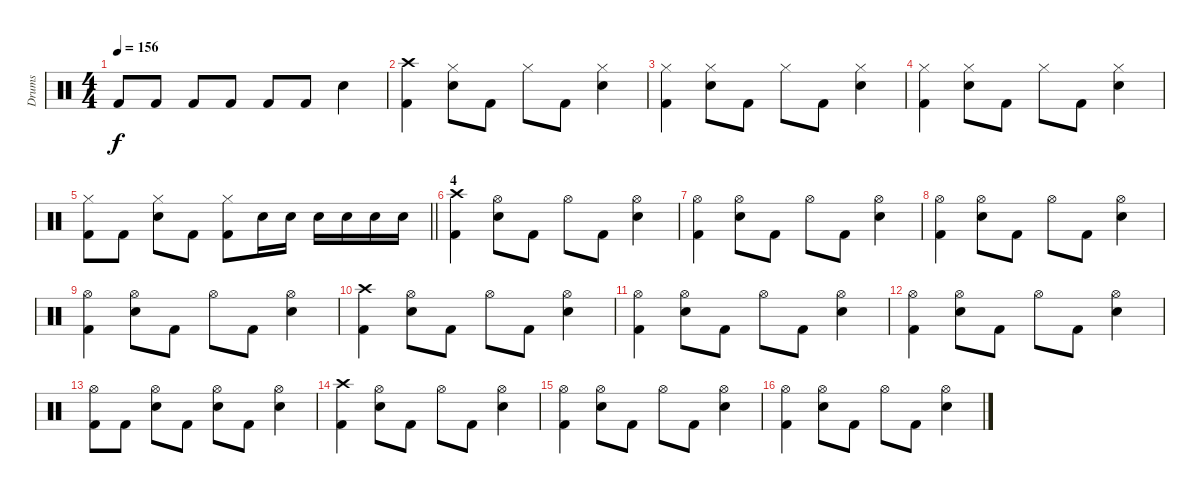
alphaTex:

\track ("Drums" "Drums") {instrument percussion}
\staff {score}
\articulation defaults
\ts (4 4)
\tempo 156
\clef neutral
\ks c "Kick (hit) 2".8{dy f} "Kick (hit) 2".8 "Kick (hit) 2".8 "Kick (hit) 2".8 "Kick (hit) 2".8 "Kick (hit) 2".8 "Snare (hit) 2".4
|
("Crash high (hit)" "Kick (hit) 2").4 ("Hi-Hat (closed)" "Snare (hit) 2").8 "Kick (hit) 2".8 "Hi-Hat (closed)".8 "Kick (hit) 2".8 ("Hi-Hat (closed)" "Snare (hit) 2").4 |
("Hi-Hat (closed)" "Kick (hit) 2").4 ("Hi-Hat (closed)" "Snare (hit) 2").8 "Kick (hit) 2".8 "Hi-Hat (closed)".8 "Kick (hit) 2".8 ("Hi-Hat (closed)" "Snare (hit) 2").4 |
("Hi-Hat (closed)" "Kick (hit) 2").4 ("Hi-Hat (closed)" "Snare (hit) 2").8 "Kick (hit) 2".8 "Hi-Hat (closed)".8 "Kick (hit) 2".8 ("Hi-Hat (closed)" "Snare (hit) 2").4 |
\barLineRight lightlight
("Hi-Hat (closed)" "Kick (hit) 2").8 "Kick (hit) 2".8 ("Hi-Hat (closed)" "Snare (hit) 2").8 "Kick (hit) 2".8 ("Hi-Hat (closed)" "Kick (hit) 2").8 "Snare (hit) 2".16 "Snare (hit) 2".16 "Snare (hit) 2".16 "Snare (hit) 2".16 "Snare (hit) 2".16 "Snare (hit) 2".16 |
\section ("" "4")
("Crash high (hit)" "Kick (hit) 2").4 ("Hi-Hat (open)" "Snare (hit) 2").8 "Kick (hit) 2".8 "Hi-Hat (open)".8 "Kick (hit) 2".8 ("Hi-Hat (open)" "Snare (hit) 2").4 |
("Hi-Hat (open)" "Kick (hit) 2").4 ("Hi-Hat (open)" "Snare (hit) 2").8 "Kick (hit) 2".8 "Hi-Hat (open)".8 "Kick (hit) 2".8 ("Hi-Hat (open)" "Snare (hit) 2").4 |
("Hi-Hat (open)" "Kick (hit) 2").4 ("Hi-Hat (open)" "Snare (hit) 2").8 "Kick (hit) 2".8 "Hi-Hat (open)".8 "Kick (hit) 2".8 ("Hi-Hat (open)" "Snare (hit) 2").4 |
("Hi-Hat (open)" "Kick (hit) 2").4 ("Hi-Hat (open)" "Snare (hit) 2").8 "Kick (hit) 2".8 "Hi-Hat (open)".8 "Kick (hit) 2".8 ("Hi-Hat (open)" "Snare (hit) 2").4 |
("Crash high (hit)" "Kick (hit) 2").4 ("Hi-Hat (open)" "Snare (hit) 2").8 "Kick (hit) 2".8 "Hi-Hat (open)".8 "Kick (hit) 2".8 ("Hi-Hat (open)" "Snare (hit) 2").4 |
("Hi-Hat (open)" "Kick (hit) 2").4 ("Hi-Hat (open)" "Snare (hit) 2").8 "Kick (hit) 2".8 "Hi-Hat (open)".8 "Kick (hit) 2".8 ("Hi-Hat (open)" "Snare (hit) 2").4 |
("Hi-Hat (open)" "Kick (hit) 2").4 ("Hi-Hat (open)" "Snare (hit) 2").8 "Kick (hit) 2".8 "Hi-Hat (open)".8 "Kick (hit) 2".8 ("Hi-Hat (open)" "Snare (hit) 2").4 |
("Hi-Hat (open)" "Kick (hit) 2").8 "Kick (hit) 2".8 ("Hi-Hat (open)" "Snare (hit) 2").8 "Kick (hit) 2".8 ("Hi-Hat (open)" "Snare (hit) 2").8 "Kick (hit) 2".8 ("Hi-Hat (open)" "Snare (hit) 2").4 |
("Crash high (hit)" "Kick (hit) 2").4 ("Hi-Hat (open)" "Snare (hit) 2").8 "Kick (hit) 2".8 "Hi-Hat (open)".8 "Kick (hit) 2".8 ("Hi-Hat (open)" "Snare (hit) 2").4 |
("Hi-Hat (open)" "Kick (hit) 2").4 ("Hi-Hat (open)" "Snare (hit) 2").8 "Kick (hit) 2".8 "Hi-Hat (open)".8 "Kick (hit) 2".8 ("Hi-Hat (open)" "Snare (hit) 2").4 |
("Hi-Hat (open)" "Kick (hit) 2").4 ("Hi-Hat (open)" "Snare (hit) 2").8 "Kick (hit) 2".8 "Hi-Hat (open)".8 "Kick (hit) 2".8 ("Hi-Hat (open)" "Snare (hit) 2").4
